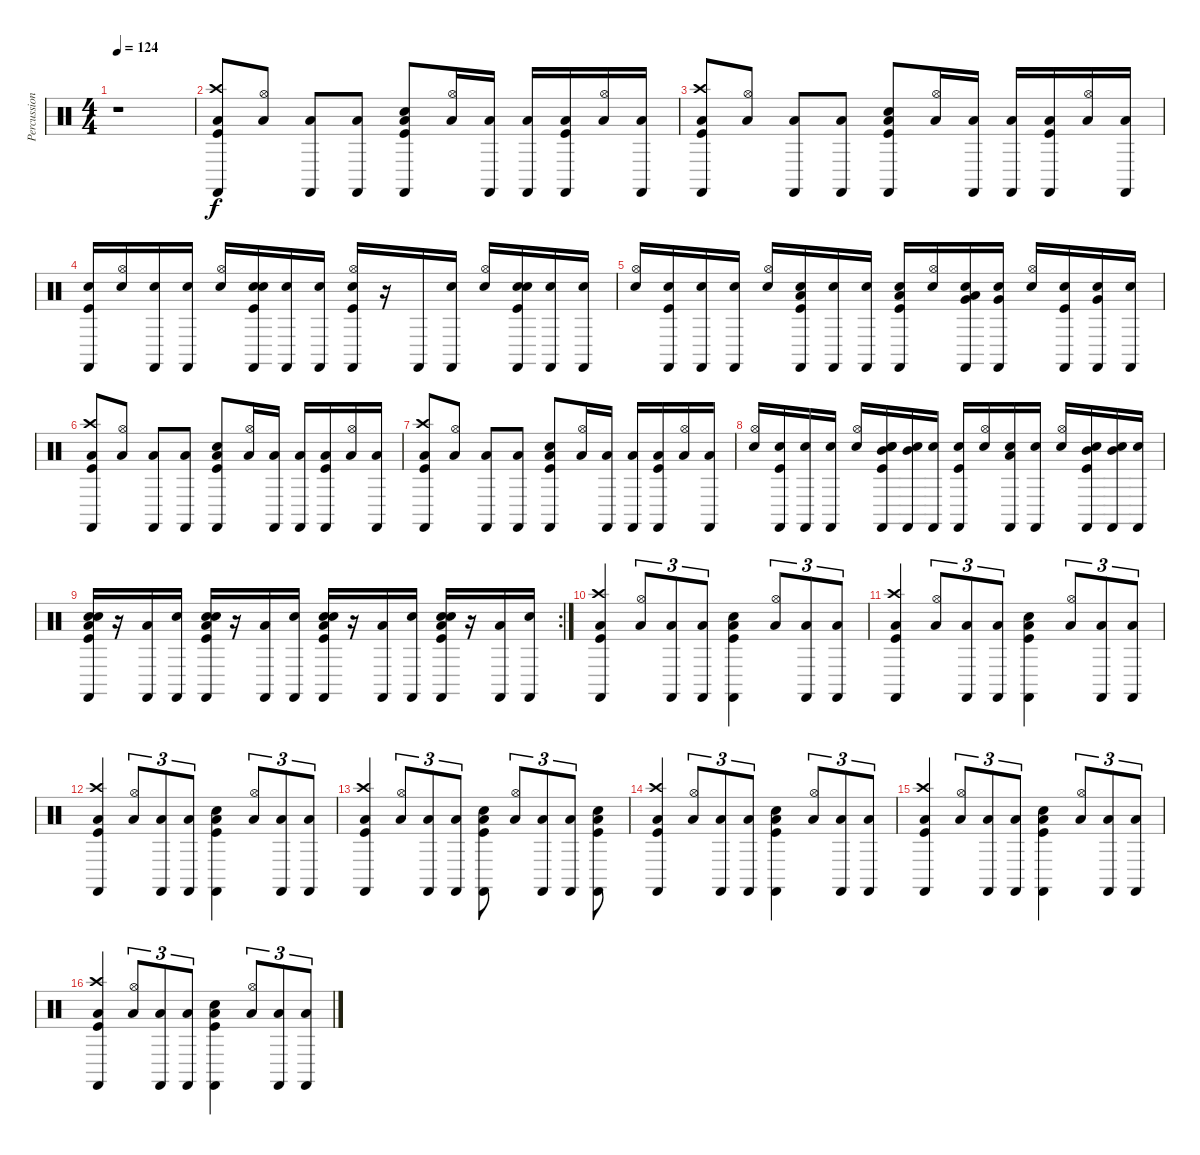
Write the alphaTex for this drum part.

\track ("Percussion" "Percussion") {instrument percussion}
\staff {score}
\articulation defaults
\ts (4 4)
\tempo 124
\clef neutral
\ks c
r.1{dy f} |
("Low Floor Tom (hit)" "Kick (hit)" "Crash high (hit)" "Castanets (hit)").8 ("Low Floor Tom (hit)" "Hi-Hat (open)").8 ("Low Floor Tom (hit)" "Castanets (hit)").8 ("Low Floor Tom (hit)" "Castanets (hit)").8 ("Low Floor Tom (hit)" "Electric Snare (hit)" "Kick (hit)" "Castanets (hit)").8 ("Low Floor Tom (hit)" "Hi-Hat (open)").16 ("Low Floor Tom (hit)" "Castanets (hit)").16 ("Low Floor Tom (hit)" "Castanets (hit)").16 ("Low Floor Tom (hit)" "Kick (hit)" "Castanets (hit)").16 ("Low Floor Tom (hit)" "Hi-Hat (open)").16 ("Low Floor Tom (hit)" "Castanets (hit)").16 |
("Low Floor Tom (hit)" "Kick (hit)" "Crash high (hit)" "Castanets (hit)").8 ("Low Floor Tom (hit)" "Hi-Hat (open)").8 ("Low Floor Tom (hit)" "Castanets (hit)").8 ("Low Floor Tom (hit)" "Castanets (hit)").8 ("Low Floor Tom (hit)" "Electric Snare (hit)" "Kick (hit)" "Castanets (hit)").8 ("Low Floor Tom (hit)" "Hi-Hat (open)").16 ("Low Floor Tom (hit)" "Castanets (hit)").16 ("Low Floor Tom (hit)" "Castanets (hit)").16 ("Low Floor Tom (hit)" "Kick (hit)" "Castanets (hit)").16 ("Low Floor Tom (hit)" "Hi-Hat (open)").16 ("Low Floor Tom (hit)" "Castanets (hit)").16 |
("Snare (hit)" "Kick (hit)" "Castanets (hit)").16 ("Snare (hit)" "Hi-Hat (open)").16 ("Snare (hit)" "Castanets (hit)").16 ("Snare (hit)" "Castanets (hit)").16 ("Snare (hit)" "Hi-Hat (open)").16 ("Snare (hit)" "Electric Snare (hit)" "Kick (hit)" "Castanets (hit)").16 ("Snare (hit)" "Castanets (hit)").16 ("Snare (hit)" "Castanets (hit)").16 ("Snare (hit)" "Kick (hit)" "Castanets (hit)" "Hi-Hat (open)").16 r.16 "Castanets (hit)".16 ("Snare (hit)" "Castanets (hit)").16 ("Snare (hit)" "Hi-Hat (open)").16 ("Snare (hit)" "Electric Snare (hit)" "Kick (hit)" "Castanets (hit)").16 ("Snare (hit)" "Castanets (hit)").16 ("Snare (hit)" "Castanets (hit)").16 |
("Snare (hit)" "Hi-Hat (open)").16 ("Snare (hit)" "Kick (hit)" "Castanets (hit)").16 ("Snare (hit)" "Castanets (hit)").16 ("Snare (hit)" "Castanets (hit)").16 ("Snare (hit)" "Hi-Hat (open)").16 ("Snare (hit)" "Kick (hit)" "Low Tom (hit)" "Castanets (hit)").16 ("Snare (hit)" "Castanets (hit)").16 ("Snare (hit)" "Castanets (hit)").16 ("Snare (hit)" "Kick (hit)" "Low Tom (hit)" "Castanets (hit)").16 ("Snare (hit)" "Hi-Hat (open)").16 ("Snare (hit)" "Very Low Tom (hit)" "Low Tom (hit)" "Castanets (hit)").16 ("Snare (hit)" "Very Low Tom (hit)" "Castanets (hit)").16 ("Snare (hit)" "Hi-Hat (open)").16 ("Snare (hit)" "Kick (hit)" "Castanets (hit)").16 ("Snare (hit)" "Very Low Tom (hit)" "Castanets (hit)").16 ("Snare (hit)" "Castanets (hit)").16 |
("Low Floor Tom (hit)" "Kick (hit)" "Crash high (hit)" "Castanets (hit)").8 ("Low Floor Tom (hit)" "Hi-Hat (open)").8 ("Low Floor Tom (hit)" "Castanets (hit)").8 ("Low Floor Tom (hit)" "Castanets (hit)").8 ("Low Floor Tom (hit)" "Electric Snare (hit)" "Kick (hit)" "Castanets (hit)").8 ("Low Floor Tom (hit)" "Hi-Hat (open)").16 ("Low Floor Tom (hit)" "Castanets (hit)").16 ("Low Floor Tom (hit)" "Castanets (hit)").16 ("Low Floor Tom (hit)" "Kick (hit)" "Castanets (hit)").16 ("Low Floor Tom (hit)" "Hi-Hat (open)").16 ("Low Floor Tom (hit)" "Castanets (hit)").16 |
("Low Floor Tom (hit)" "Kick (hit)" "Crash high (hit)" "Castanets (hit)").8 ("Low Floor Tom (hit)" "Hi-Hat (open)").8 ("Low Floor Tom (hit)" "Castanets (hit)").8 ("Low Floor Tom (hit)" "Castanets (hit)").8 ("Low Floor Tom (hit)" "Electric Snare (hit)" "Kick (hit)" "Castanets (hit)").8 ("Low Floor Tom (hit)" "Hi-Hat (open)").16 ("Low Floor Tom (hit)" "Castanets (hit)").16 ("Low Floor Tom (hit)" "Castanets (hit)").16 ("Low Floor Tom (hit)" "Kick (hit)" "Castanets (hit)").16 ("Low Floor Tom (hit)" "Hi-Hat (open)").16 ("Low Floor Tom (hit)" "Castanets (hit)").16 |
("Snare (hit)" "Hi-Hat (open)").16 ("Snare (hit)" "Kick (hit)" "Castanets (hit)").16 ("Snare (hit)" "Castanets (hit)").16 ("Snare (hit)" "Castanets (hit)").16 ("Snare (hit)" "Hi-Hat (open)").16 ("Snare (hit)" "Electric Snare (hit)" "Kick (hit)" "Mid Tom (hit)" "Castanets (hit)").16 ("Snare (hit)" "Mid Tom (hit)" "Castanets (hit)").16 ("Snare (hit)" "Castanets (hit)").16 ("Snare (hit)" "Kick (hit)" "Castanets (hit)").16 ("Snare (hit)" "Hi-Hat (open)").16 ("Snare (hit)" "Low Floor Tom (hit)" "Castanets (hit)").16 ("Snare (hit)" "Castanets (hit)").16 ("Snare (hit)" "Hi-Hat (open)").16 ("Snare (hit)" "Kick (hit)" "Mid Tom (hit)" "Castanets (hit)").16 ("Snare (hit)" "Mid Tom (hit)" "Castanets (hit)").16 ("Snare (hit)" "Castanets (hit)").16 |
\rc 2
("Snare (hit)" "Low Tom (hit)" "Electric Snare (hit)" "Kick (hit)" "Castanets (hit)").16 r.16 ("Low Tom (hit)" "Castanets (hit)").16 ("Snare (hit)" "Castanets (hit)").16 ("Snare (hit)" "Low Tom (hit)" "Electric Snare (hit)" "Kick (hit)" "Castanets (hit)").16 r.16 ("Low Tom (hit)" "Castanets (hit)").16 ("Snare (hit)" "Castanets (hit)").16 ("Snare (hit)" "Low Tom (hit)" "Electric Snare (hit)" "Kick (hit)" "Castanets (hit)").16 r.16 ("Low Tom (hit)" "Castanets (hit)").16 ("Snare (hit)" "Castanets (hit)").16 ("Snare (hit)" "Low Tom (hit)" "Electric Snare (hit)" "Kick (hit)" "Castanets (hit)").16 r.16 ("Low Tom (hit)" "Castanets (hit)").16 ("Snare (hit)" "Castanets (hit)").16 |
("Low Floor Tom (hit)" "Kick (hit)" "Crash high (hit)" "Castanets (hit)").4 ("Low Floor Tom (hit)" "Hi-Hat (open)").8{tu (3 2)} ("Low Floor Tom (hit)" "Castanets (hit)").8{tu (3 2)} ("Low Floor Tom (hit)" "Castanets (hit)").8{tu (3 2)} ("Low Floor Tom (hit)" "Electric Snare (hit)" "Kick (hit)" "Castanets (hit)").4 ("Low Floor Tom (hit)" "Hi-Hat (open)").8{tu (3 2)} ("Low Floor Tom (hit)" "Castanets (hit)").8{tu (3 2)} ("Low Floor Tom (hit)" "Castanets (hit)").8{tu (3 2)} |
("Low Floor Tom (hit)" "Kick (hit)" "Crash high (hit)" "Castanets (hit)").4 ("Low Floor Tom (hit)" "Hi-Hat (open)").8{tu (3 2)} ("Low Floor Tom (hit)" "Castanets (hit)").8{tu (3 2)} ("Low Floor Tom (hit)" "Castanets (hit)").8{tu (3 2)} ("Low Floor Tom (hit)" "Electric Snare (hit)" "Kick (hit)" "Castanets (hit)").4 ("Low Floor Tom (hit)" "Hi-Hat (open)").8{tu (3 2)} ("Low Floor Tom (hit)" "Castanets (hit)").8{tu (3 2)} ("Low Floor Tom (hit)" "Castanets (hit)").8{tu (3 2)} |
("Low Floor Tom (hit)" "Kick (hit)" "Crash high (hit)" "Castanets (hit)").4 ("Low Floor Tom (hit)" "Hi-Hat (open)").8{tu (3 2)} ("Low Floor Tom (hit)" "Castanets (hit)").8{tu (3 2)} ("Low Floor Tom (hit)" "Castanets (hit)").8{tu (3 2)} ("Low Floor Tom (hit)" "Electric Snare (hit)" "Kick (hit)" "Castanets (hit)").4 ("Low Floor Tom (hit)" "Hi-Hat (open)").8{tu (3 2)} ("Low Floor Tom (hit)" "Castanets (hit)").8{tu (3 2)} ("Low Floor Tom (hit)" "Castanets (hit)").8{tu (3 2)} |
("Low Floor Tom (hit)" "Kick (hit)" "Crash high (hit)" "Castanets (hit)").4 ("Low Floor Tom (hit)" "Hi-Hat (open)").8{tu (3 2)} ("Low Floor Tom (hit)" "Castanets (hit)").8{tu (3 2)} ("Low Floor Tom (hit)" "Castanets (hit)").8{tu (3 2)} ("Low Floor Tom (hit)" "Electric Snare (hit)" "Kick (hit)" "Castanets (hit)").8 ("Low Floor Tom (hit)" "Hi-Hat (open)").8{tu (3 2)} ("Low Floor Tom (hit)" "Castanets (hit)").8{tu (3 2)} ("Low Floor Tom (hit)" "Castanets (hit)").8{tu (3 2)} ("Low Floor Tom (hit)" "Electric Snare (hit)" "Kick (hit)" "Castanets (hit)").8 |
("Low Floor Tom (hit)" "Kick (hit)" "Crash high (hit)" "Castanets (hit)").4 ("Low Floor Tom (hit)" "Hi-Hat (open)").8{tu (3 2)} ("Low Floor Tom (hit)" "Castanets (hit)").8{tu (3 2)} ("Low Floor Tom (hit)" "Castanets (hit)").8{tu (3 2)} ("Low Floor Tom (hit)" "Electric Snare (hit)" "Kick (hit)" "Castanets (hit)").4 ("Low Floor Tom (hit)" "Hi-Hat (open)").8{tu (3 2)} ("Low Floor Tom (hit)" "Castanets (hit)").8{tu (3 2)} ("Low Floor Tom (hit)" "Castanets (hit)").8{tu (3 2)} |
("Low Floor Tom (hit)" "Kick (hit)" "Crash high (hit)" "Castanets (hit)").4 ("Low Floor Tom (hit)" "Hi-Hat (open)").8{tu (3 2)} ("Low Floor Tom (hit)" "Castanets (hit)").8{tu (3 2)} ("Low Floor Tom (hit)" "Castanets (hit)").8{tu (3 2)} ("Low Floor Tom (hit)" "Electric Snare (hit)" "Kick (hit)" "Castanets (hit)").4 ("Low Floor Tom (hit)" "Hi-Hat (open)").8{tu (3 2)} ("Low Floor Tom (hit)" "Castanets (hit)").8{tu (3 2)} ("Low Floor Tom (hit)" "Castanets (hit)").8{tu (3 2)} |
("Low Floor Tom (hit)" "Kick (hit)" "Crash high (hit)" "Castanets (hit)").4 ("Low Floor Tom (hit)" "Hi-Hat (open)").8{tu (3 2)} ("Low Floor Tom (hit)" "Castanets (hit)").8{tu (3 2)} ("Low Floor Tom (hit)" "Castanets (hit)").8{tu (3 2)} ("Low Floor Tom (hit)" "Electric Snare (hit)" "Kick (hit)" "Castanets (hit)").4 ("Low Floor Tom (hit)" "Hi-Hat (open)").8{tu (3 2)} ("Low Floor Tom (hit)" "Castanets (hit)").8{tu (3 2)} ("Low Floor Tom (hit)" "Castanets (hit)").8{tu (3 2)}
